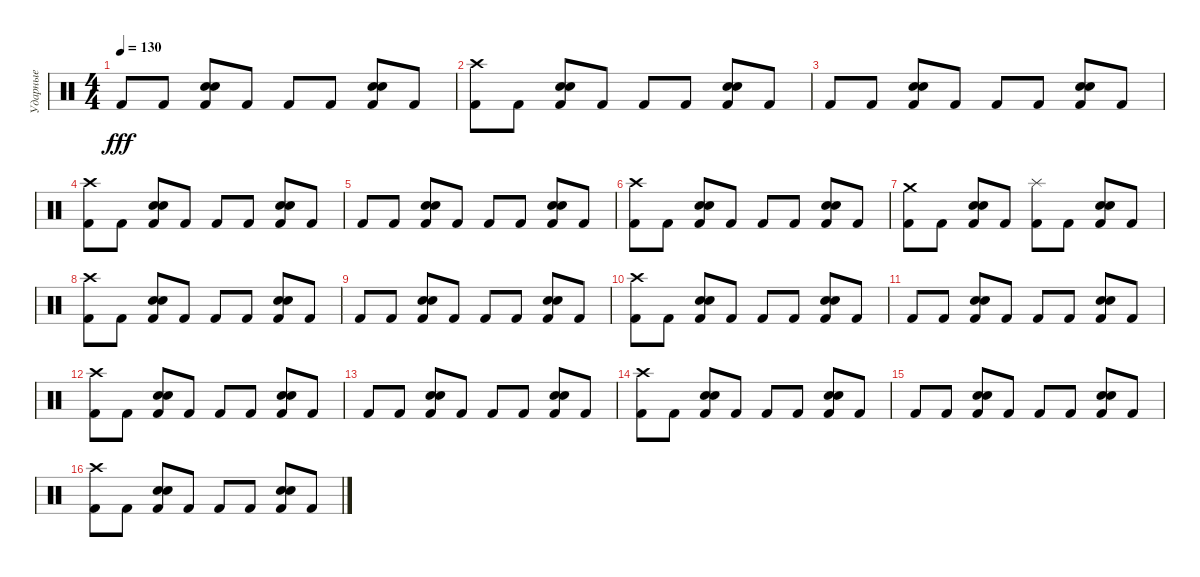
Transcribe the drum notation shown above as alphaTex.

\track ("Ударные" "Ударные") {instrument percussion}
\staff {score}
\articulation defaults
\ts (4 4)
\tempo 130
\clef neutral
\ks c "Kick (hit) 2".8{dy fff} "Kick (hit) 2".8
("Snare (hit) 2" "Snare (hit) 2" "Kick (hit) 2").8 "Kick (hit) 2".8 "Kick (hit) 2".8 "Kick (hit) 2".8 ("Snare (hit) 2" "Snare (hit) 2" "Kick (hit) 2").8 "Kick (hit) 2".8 |
("Crash high (hit)" "Kick (hit) 2").8 "Kick (hit) 2".8 ("Snare (hit) 2" "Snare (hit) 2" "Kick (hit) 2").8 "Kick (hit) 2".8 "Kick (hit) 2".8 "Kick (hit) 2".8 ("Snare (hit) 2" "Snare (hit) 2" "Kick (hit) 2").8 "Kick (hit) 2".8 |
"Kick (hit) 2".8 "Kick (hit) 2".8 ("Snare (hit) 2" "Snare (hit) 2" "Kick (hit) 2").8 "Kick (hit) 2".8 "Kick (hit) 2".8 "Kick (hit) 2".8 ("Snare (hit) 2" "Snare (hit) 2" "Kick (hit) 2").8 "Kick (hit) 2".8 |
("Crash high (hit)" "Kick (hit) 2").8 "Kick (hit) 2".8 ("Snare (hit) 2" "Snare (hit) 2" "Kick (hit) 2").8 "Kick (hit) 2".8 "Kick (hit) 2".8 "Kick (hit) 2".8 ("Snare (hit) 2" "Snare (hit) 2" "Kick (hit) 2").8 "Kick (hit) 2".8 |
"Kick (hit) 2".8 "Kick (hit) 2".8 ("Snare (hit) 2" "Snare (hit) 2" "Kick (hit) 2").8 "Kick (hit) 2".8 "Kick (hit) 2".8 "Kick (hit) 2".8 ("Snare (hit) 2" "Snare (hit) 2" "Kick (hit) 2").8 "Kick (hit) 2".8 |
("Crash high (hit)" "Kick (hit) 2").8 "Kick (hit) 2".8 ("Snare (hit) 2" "Snare (hit) 2" "Kick (hit) 2").8 "Kick (hit) 2".8 "Kick (hit) 2".8 "Kick (hit) 2".8 ("Snare (hit) 2" "Snare (hit) 2" "Kick (hit) 2").8 "Kick (hit) 2".8 |
("Crash medium (hit)" "Kick (hit) 2").8 "Kick (hit) 2".8 ("Snare (hit) 2" "Snare (hit) 2" "Kick (hit) 2").8 "Kick (hit) 2".8 ("Splash (hit)" "Kick (hit) 2").8 "Kick (hit) 2".8 ("Snare (hit) 2" "Snare (hit) 2" "Kick (hit) 2").8 "Kick (hit) 2".8 |
("Crash high (hit)" "Kick (hit) 2").8 "Kick (hit) 2".8 ("Snare (hit) 2" "Snare (hit) 2" "Kick (hit) 2").8 "Kick (hit) 2".8 "Kick (hit) 2".8 "Kick (hit) 2".8 ("Snare (hit) 2" "Snare (hit) 2" "Kick (hit) 2").8 "Kick (hit) 2".8 |
"Kick (hit) 2".8 "Kick (hit) 2".8 ("Snare (hit) 2" "Snare (hit) 2" "Kick (hit) 2").8 "Kick (hit) 2".8 "Kick (hit) 2".8 "Kick (hit) 2".8 ("Snare (hit) 2" "Snare (hit) 2" "Kick (hit) 2").8 "Kick (hit) 2".8 |
("Crash high (hit)" "Kick (hit) 2").8 "Kick (hit) 2".8 ("Snare (hit) 2" "Snare (hit) 2" "Kick (hit) 2").8 "Kick (hit) 2".8 "Kick (hit) 2".8 "Kick (hit) 2".8 ("Snare (hit) 2" "Snare (hit) 2" "Kick (hit) 2").8 "Kick (hit) 2".8 |
"Kick (hit) 2".8 "Kick (hit) 2".8 ("Snare (hit) 2" "Snare (hit) 2" "Kick (hit) 2").8 "Kick (hit) 2".8 "Kick (hit) 2".8 "Kick (hit) 2".8 ("Snare (hit) 2" "Snare (hit) 2" "Kick (hit) 2").8 "Kick (hit) 2".8 |
("Crash high (hit)" "Kick (hit) 2").8 "Kick (hit) 2".8 ("Snare (hit) 2" "Snare (hit) 2" "Kick (hit) 2").8 "Kick (hit) 2".8 "Kick (hit) 2".8 "Kick (hit) 2".8 ("Snare (hit) 2" "Snare (hit) 2" "Kick (hit) 2").8 "Kick (hit) 2".8 |
"Kick (hit) 2".8 "Kick (hit) 2".8 ("Snare (hit) 2" "Snare (hit) 2" "Kick (hit) 2").8 "Kick (hit) 2".8 "Kick (hit) 2".8 "Kick (hit) 2".8 ("Snare (hit) 2" "Snare (hit) 2" "Kick (hit) 2").8 "Kick (hit) 2".8 |
("Crash high (hit)" "Kick (hit) 2").8 "Kick (hit) 2".8 ("Snare (hit) 2" "Snare (hit) 2" "Kick (hit) 2").8 "Kick (hit) 2".8 "Kick (hit) 2".8 "Kick (hit) 2".8 ("Snare (hit) 2" "Snare (hit) 2" "Kick (hit) 2").8 "Kick (hit) 2".8 |
"Kick (hit) 2".8 "Kick (hit) 2".8 ("Snare (hit) 2" "Snare (hit) 2" "Kick (hit) 2").8 "Kick (hit) 2".8 "Kick (hit) 2".8 "Kick (hit) 2".8 ("Snare (hit) 2" "Snare (hit) 2" "Kick (hit) 2").8 "Kick (hit) 2".8 |
("Crash high (hit)" "Kick (hit) 2").8 "Kick (hit) 2".8 ("Snare (hit) 2" "Snare (hit) 2" "Kick (hit) 2").8 "Kick (hit) 2".8 "Kick (hit) 2".8 "Kick (hit) 2".8 ("Snare (hit) 2" "Snare (hit) 2" "Kick (hit) 2").8 "Kick (hit) 2".8
